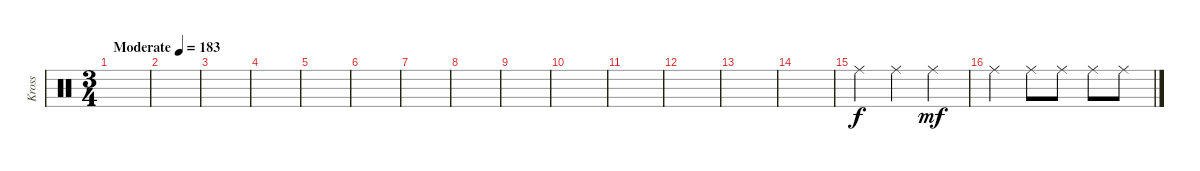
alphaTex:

\track ("Kross" "Kross") {instrument percussion}
\staff {score}
\articulation defaults
\ts (3 4)
\tempo (183 "Moderate")
\clef neutral
\ks c
|
|
|
|
|
|
|
|
|
|
|
|
|
|
"Ride (middle)".4 "Ride (middle)".4 "Ride (middle)".4{dy mf} |
"Ride (middle)".4 "Ride (middle)".8 "Ride (middle)".8 "Ride (middle)".8 "Ride (middle)".8
